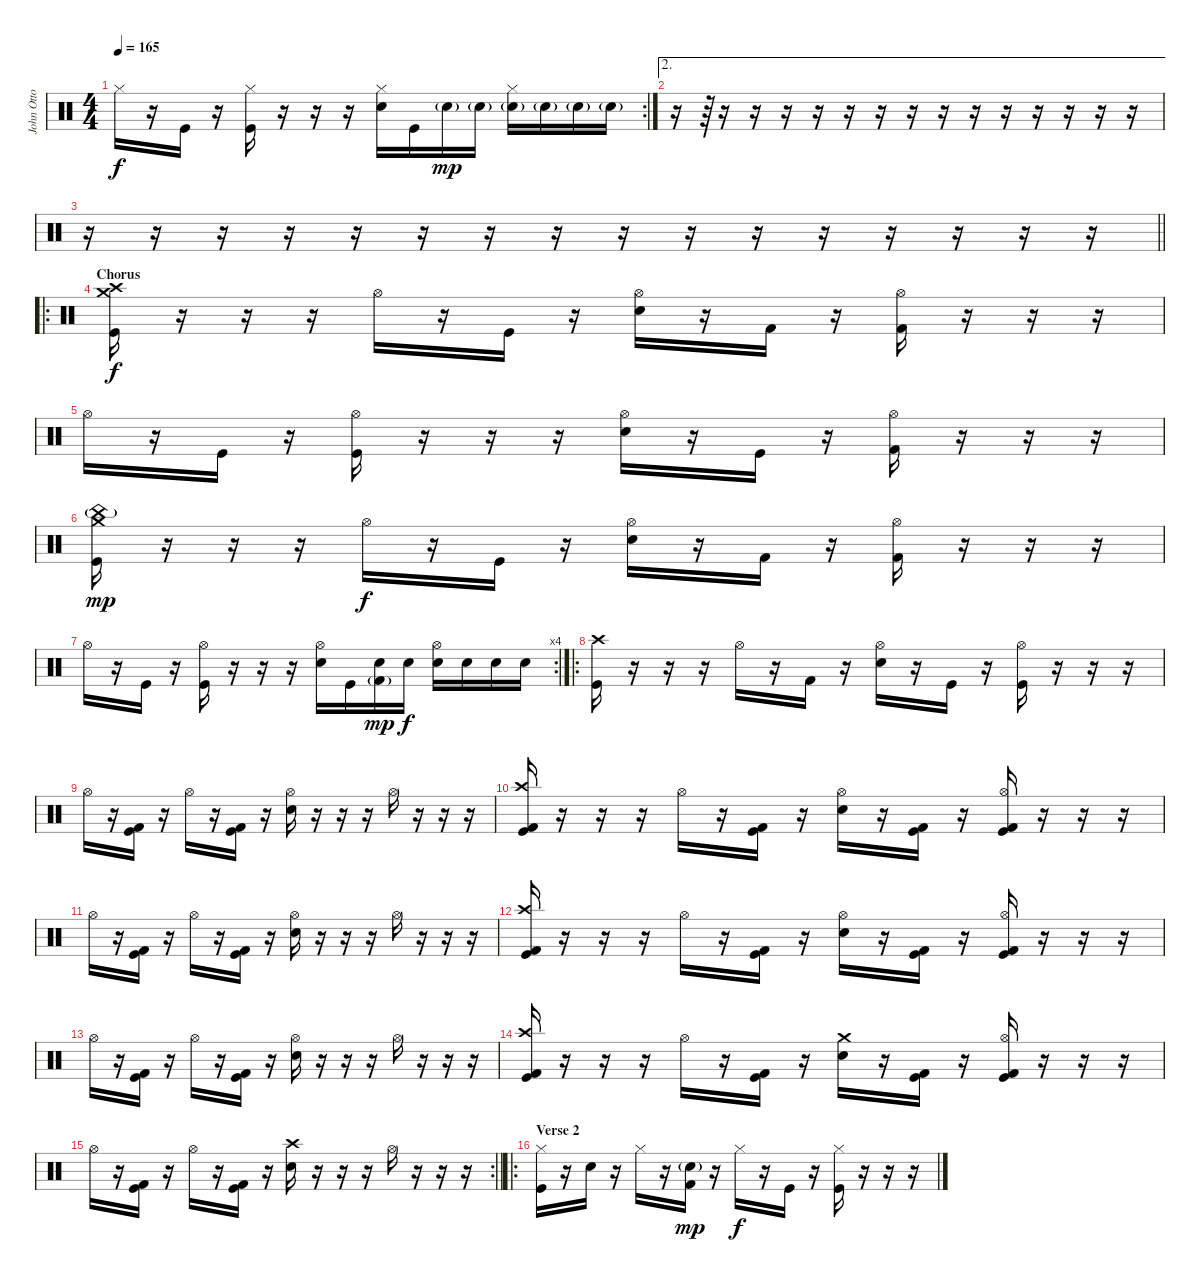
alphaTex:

\track ("John Otto" "John Otto") {instrument percussion}
\staff {score}
\articulation defaults
\rc 2
\ts (4 4)
\tempo 165
\clef neutral
\ks c "Hi-Hat (closed)".16{dy f}
r.16 "Kick (hit)".16 r.16 ("Hi-Hat (closed)" "Kick (hit)").16 r.16 r.16 r.16 ("Hi-Hat (closed)" "Electric Snare (hit)").16 "Kick (hit)".16 "Electric Snare (hit)"{g}.16{dy mp} "Electric Snare (hit)"{g}.16 ("Hi-Hat (closed)" "Electric Snare (hit)"{g}).16 "Electric Snare (hit)"{g}.16 "Electric Snare (hit)"{g}.16 "Electric Snare (hit)"{g}.16 |
\ae 2
r.16 r.64 r.16 r.16 r.16 r.16 r.16 r.16 r.16 r.16 r.16 r.16 r.16 r.16 r.16 r.16 |
\barLineRight lightlight
r.16 r.16 r.16 r.16 r.16 r.16 r.16 r.16 r.16 r.16 r.16 r.16 r.16 r.16 r.16 r.16 |
\ro
\section ("" "Chorus")
("Crash high (hit)" "Crash medium (hit)" "Kick (hit)").16{dy f} r.16 r.16 r.16 "Hi-Hat (open)".16 r.16 "Kick (hit)".16 r.16 ("Hi-Hat (open)" "Electric Snare (hit)").16 r.16 "Kick (hit) 2".16 r.16 ("Hi-Hat (open)" "Kick (hit) 2").16 r.16 r.16 r.16 |
"Hi-Hat (open)".16 r.16 "Kick (hit)".16 r.16 ("Hi-Hat (open)" "Kick (hit)").16 r.16 r.16 r.16 ("Hi-Hat (open)" "Electric Snare (hit)").16 r.16 "Kick (hit)".16 r.16 ("Hi-Hat (open)" "Kick (hit) 2").16 r.16 r.16 r.16 |
("Crash medium (hit)" "China (hit)"{g} "Kick (hit)").16{dy mp} r.16 r.16 r.16 "Hi-Hat (open)".16{dy f} r.16 "Kick (hit)".16 r.16 ("Hi-Hat (open)" "Electric Snare (hit)").16 r.16 "Kick (hit) 2".16 r.16 ("Hi-Hat (open)" "Kick (hit) 2").16 r.16 r.16 r.16 |
\rc 4 "Hi-Hat (open)".16
r.16 "Kick (hit)".16 r.16 ("Hi-Hat (open)" "Kick (hit)").16 r.16 r.16 r.16 ("Hi-Hat (open)" "Electric Snare (hit)").16 "Kick (hit)".16 ("Electric Snare (hit)" "Kick (hit) 2"{g}).16{dy mp} "Electric Snare (hit)".16{dy f} ("Hi-Hat (open)" "Electric Snare (hit)").16 "Electric Snare (hit)".16 "Electric Snare (hit)".16 "Electric Snare (hit)".16 |
\ro
("Crash high (hit)" "Kick (hit)").16 r.16 r.16 r.16 "Hi-Hat (open)".16 r.16 "Kick (hit) 2".16 r.16 ("Hi-Hat (open)" "Electric Snare (hit)").16 r.16 "Kick (hit)".16 r.16 ("Hi-Hat (open)" "Kick (hit)").16 r.16 r.16 r.16 |
"Hi-Hat (open)".16 r.16 ("Kick (hit)" "Kick (hit) 2").16 r.16 "Hi-Hat (open)".16 r.16 ("Kick (hit)" "Kick (hit) 2").16 r.16 ("Hi-Hat (open)" "Electric Snare (hit)").16 r.16 r.16 r.16 "Hi-Hat (open)".16 r.16 r.16 r.16 |
("Crash high (hit)" "Kick (hit)" "Kick (hit) 2").16 r.16 r.16 r.16 "Hi-Hat (open)".16 r.16 ("Kick (hit)" "Kick (hit) 2").16 r.16 ("Hi-Hat (open)" "Electric Snare (hit)").16 r.16 ("Kick (hit)" "Kick (hit) 2").16 r.16 ("Hi-Hat (open)" "Kick (hit)" "Kick (hit) 2").16 r.16 r.16 r.16 |
"Hi-Hat (open)".16 r.16 ("Kick (hit)" "Kick (hit) 2").16 r.16 "Hi-Hat (open)".16 r.16 ("Kick (hit)" "Kick (hit) 2").16 r.16 ("Hi-Hat (open)" "Electric Snare (hit)").16 r.16 r.16 r.16 "Hi-Hat (open)".16 r.16 r.16 r.16 |
("Crash high (hit)" "Kick (hit)" "Kick (hit) 2").16 r.16 r.16 r.16 "Hi-Hat (open)".16 r.16 ("Kick (hit)" "Kick (hit) 2").16 r.16 ("Hi-Hat (open)" "Electric Snare (hit)").16 r.16 ("Kick (hit)" "Kick (hit) 2").16 r.16 ("Hi-Hat (open)" "Kick (hit)" "Kick (hit) 2").16 r.16 r.16 r.16 |
"Hi-Hat (open)".16 r.16 ("Kick (hit)" "Kick (hit) 2").16 r.16 "Hi-Hat (open)".16 r.16 ("Kick (hit)" "Kick (hit) 2").16 r.16 ("Hi-Hat (open)" "Electric Snare (hit)").16 r.16 r.16 r.16 "Hi-Hat (open)".16 r.16 r.16 r.16 |
("Crash high (hit)" "Kick (hit)" "Kick (hit) 2").16 r.16 r.16 r.16 "Hi-Hat (open)".16 r.16 ("Kick (hit)" "Kick (hit) 2").16 r.16 ("Crash medium (hit)" "Electric Snare (hit)").16 r.16 ("Kick (hit)" "Kick (hit) 2").16 r.16 ("Hi-Hat (open)" "Kick (hit)" "Kick (hit) 2").16 r.16 r.16 r.16 |
\rc 2
\barLineRight lightlight "Hi-Hat (open)".16
r.16 ("Kick (hit)" "Kick (hit) 2").16 r.16 "Hi-Hat (open)".16 r.16 ("Kick (hit)" "Kick (hit) 2").16 r.16 ("Crash high (hit)" "Electric Snare (hit)").16 r.16 r.16 r.16 "Hi-Hat (open)".16 r.16 r.16 r.16 |
\ro
\section ("" "Verse 2")
("Hi-Hat (closed)" "Kick (hit)").16 r.16 "Electric Snare (hit)".16 r.16 "Hi-Hat (closed)".16 r.16 ("Electric Snare (hit)"{g} "Kick (hit) 2").16{dy mp} r.16 "Hi-Hat (closed)".16{dy f} r.16 "Kick (hit)".16 r.16 ("Hi-Hat (closed)" "Kick (hit)").16 r.16 r.16 r.16
